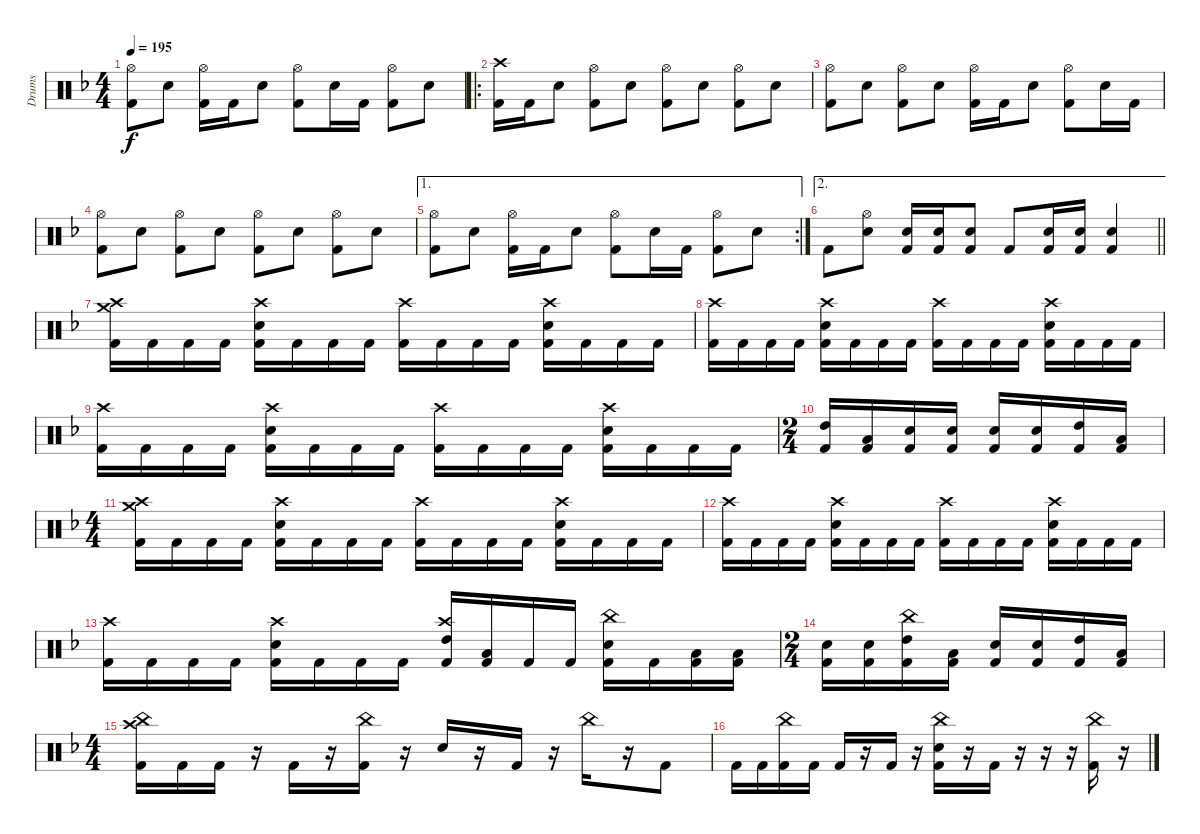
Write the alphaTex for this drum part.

\track ("Drums" "Drums") {instrument percussion}
\staff {score}
\articulation defaults
\ts (4 4)
\tempo 195
\clef neutral
\ks f
("Hi-Hat (open)" "Kick (hit) 2").8{dy f} "Electric Snare (hit)".8 ("Hi-Hat (open)" "Kick (hit) 2").16 "Kick (hit) 2".16 "Electric Snare (hit)".8 ("Hi-Hat (open)" "Kick (hit) 2").8 "Electric Snare (hit)".16 "Kick (hit) 2".16 ("Hi-Hat (open)" "Kick (hit) 2").8 "Electric Snare (hit)".8 |
\ro
("Crash high (hit)" "Kick (hit) 2").16 "Kick (hit) 2".16 "Electric Snare (hit)".8 ("Hi-Hat (open)" "Kick (hit) 2").8 "Electric Snare (hit)".8 ("Hi-Hat (open)" "Kick (hit) 2").8 "Electric Snare (hit)".8 ("Hi-Hat (open)" "Kick (hit) 2").8 "Electric Snare (hit)".8 |
("Hi-Hat (open)" "Kick (hit) 2").8 "Electric Snare (hit)".8 ("Hi-Hat (open)" "Kick (hit) 2").8 "Electric Snare (hit)".8 ("Hi-Hat (open)" "Kick (hit) 2").16 "Kick (hit) 2".16 "Electric Snare (hit)".8 ("Hi-Hat (open)" "Kick (hit) 2").8 "Electric Snare (hit)".16 "Kick (hit) 2".16 |
("Hi-Hat (open)" "Kick (hit) 2").8 "Electric Snare (hit)".8 ("Hi-Hat (open)" "Kick (hit) 2").8 "Electric Snare (hit)".8 ("Hi-Hat (open)" "Kick (hit) 2").8 "Electric Snare (hit)".8 ("Hi-Hat (open)" "Kick (hit) 2").8 "Electric Snare (hit)".8 |
\ae 1
\rc 2
("Hi-Hat (open)" "Kick (hit) 2").8 "Electric Snare (hit)".8 ("Hi-Hat (open)" "Kick (hit) 2").16 "Kick (hit) 2".16 "Electric Snare (hit)".8 ("Hi-Hat (open)" "Kick (hit) 2").8 "Electric Snare (hit)".16 "Kick (hit) 2".16 ("Hi-Hat (open)" "Kick (hit) 2").8 "Electric Snare (hit)".8 |
\ae 2
\barLineRight lightlight "Kick (hit) 2".8
("Hi-Hat (open)" "Electric Snare (hit)").8 ("Electric Snare (hit)" "Kick (hit) 2").16 ("Electric Snare (hit)" "Kick (hit) 2").16 ("Electric Snare (hit)" "Kick (hit) 2").8 "Kick (hit) 2".8 ("Electric Snare (hit)" "Kick (hit) 2").16 ("Electric Snare (hit)" "Kick (hit) 2").16 ("Electric Snare (hit)" "Kick (hit) 2").4 |
("Crash high (hit)" "Crash medium (hit)" "Kick (hit) 2").16 "Kick (hit) 2".16 "Kick (hit) 2".16 "Kick (hit) 2".16 ("Crash high (hit)" "Electric Snare (hit)" "Kick (hit) 2").16 "Kick (hit) 2".16 "Kick (hit) 2".16 "Kick (hit) 2".16 ("Crash high (hit)" "Kick (hit) 2").16 "Kick (hit) 2".16 "Kick (hit) 2".16 "Kick (hit) 2".16 ("Crash high (hit)" "Electric Snare (hit)" "Kick (hit) 2").16 "Kick (hit) 2".16 "Kick (hit) 2".16 "Kick (hit) 2".16 |
("Crash high (hit)" "Kick (hit) 2").16 "Kick (hit) 2".16 "Kick (hit) 2".16 "Kick (hit) 2".16 ("Crash high (hit)" "Electric Snare (hit)" "Kick (hit) 2").16 "Kick (hit) 2".16 "Kick (hit) 2".16 "Kick (hit) 2".16 ("Crash high (hit)" "Kick (hit) 2").16 "Kick (hit) 2".16 "Kick (hit) 2".16 "Kick (hit) 2".16 ("Crash high (hit)" "Electric Snare (hit)" "Kick (hit) 2").16 "Kick (hit) 2".16 "Kick (hit) 2".16 "Kick (hit) 2".16 |
("Crash high (hit)" "Kick (hit) 2").16 "Kick (hit) 2".16 "Kick (hit) 2".16 "Kick (hit) 2".16 ("Crash high (hit)" "Electric Snare (hit)" "Kick (hit) 2").16 "Kick (hit) 2".16 "Kick (hit) 2".16 "Kick (hit) 2".16 ("Crash high (hit)" "Kick (hit) 2").16 "Kick (hit) 2".16 "Kick (hit) 2".16 "Kick (hit) 2".16 ("Crash high (hit)" "Electric Snare (hit)" "Kick (hit) 2").16 "Kick (hit) 2".16 "Kick (hit) 2".16 "Kick (hit) 2".16 |
\ts (2 4)
("High Tom (hit)" "Kick (hit) 2").16 ("Low Tom (hit)" "Kick (hit) 2").16 ("Electric Snare (hit)" "Kick (hit) 2").16 ("Electric Snare (hit)" "Kick (hit) 2").16 ("Electric Snare (hit)" "Kick (hit) 2").16 ("Electric Snare (hit)" "Kick (hit) 2").16 ("High Tom (hit)" "Kick (hit) 2").16 ("Low Tom (hit)" "Kick (hit) 2").16 |
\ts (4 4)
("Crash high (hit)" "Crash medium (hit)" "Kick (hit) 2").16 "Kick (hit) 2".16 "Kick (hit) 2".16 "Kick (hit) 2".16 ("Crash high (hit)" "Electric Snare (hit)" "Kick (hit) 2").16 "Kick (hit) 2".16 "Kick (hit) 2".16 "Kick (hit) 2".16 ("Crash high (hit)" "Kick (hit) 2").16 "Kick (hit) 2".16 "Kick (hit) 2".16 "Kick (hit) 2".16 ("Crash high (hit)" "Electric Snare (hit)" "Kick (hit) 2").16 "Kick (hit) 2".16 "Kick (hit) 2".16 "Kick (hit) 2".16 |
("Crash high (hit)" "Kick (hit) 2").16 "Kick (hit) 2".16 "Kick (hit) 2".16 "Kick (hit) 2".16 ("Crash high (hit)" "Electric Snare (hit)" "Kick (hit) 2").16 "Kick (hit) 2".16 "Kick (hit) 2".16 "Kick (hit) 2".16 ("Crash high (hit)" "Kick (hit) 2").16 "Kick (hit) 2".16 "Kick (hit) 2".16 "Kick (hit) 2".16 ("Crash high (hit)" "Electric Snare (hit)" "Kick (hit) 2").16 "Kick (hit) 2".16 "Kick (hit) 2".16 "Kick (hit) 2".16 |
("Crash high (hit)" "Kick (hit) 2").16 "Kick (hit) 2".16 "Kick (hit) 2".16 "Kick (hit) 2".16 ("Crash high (hit)" "Electric Snare (hit)" "Kick (hit) 2").16 "Kick (hit) 2".16 "Kick (hit) 2".16 "Kick (hit) 2".16 ("Crash high (hit)" "High Tom (hit)" "Kick (hit) 2").16 ("Low Tom (hit)" "Kick (hit) 2").16 "Kick (hit) 2".16 "Kick (hit) 2".16 ("China (hit)" "Electric Snare (hit)" "Kick (hit) 2").16 "Kick (hit) 2".16 ("Low Tom (hit)" "Kick (hit) 2").16 ("Low Tom (hit)" "Kick (hit) 2").16 |
\ts (2 4)
("Electric Snare (hit)" "Kick (hit) 2").16 ("Electric Snare (hit)" "Kick (hit) 2").16 ("China (hit)" "High Tom (hit)" "Kick (hit) 2").16 ("Low Tom (hit)" "Kick (hit) 2").16 ("Electric Snare (hit)" "Kick (hit) 2").16 ("Electric Snare (hit)" "Kick (hit) 2").16 ("High Tom (hit)" "Kick (hit) 2").16 ("Low Tom (hit)" "Kick (hit) 2").16 |
\ts (4 4)
("Crash high (hit)" "China (hit)" "Kick (hit) 2").16 "Kick (hit) 2".16 "Kick (hit) 2".16 r.16 "Kick (hit) 2".16 r.16 ("China (hit)" "Kick (hit) 2").16 r.16 "Electric Snare (hit)".16 r.16 "Kick (hit) 2".16 r.16 "China (hit)".16 r.16 "Kick (hit) 2".8 |
"Kick (hit) 2".16 "Kick (hit) 2".16 ("China (hit)" "Kick (hit) 2").16 "Kick (hit) 2".16 "Kick (hit) 2".16 r.16 "Kick (hit) 2".16 r.16 ("China (hit)" "Electric Snare (hit)" "Kick (hit) 2").16 r.16 "Kick (hit) 2".16 r.16 r.16 r.16 ("China (hit)" "Kick (hit) 2").16 r.16
